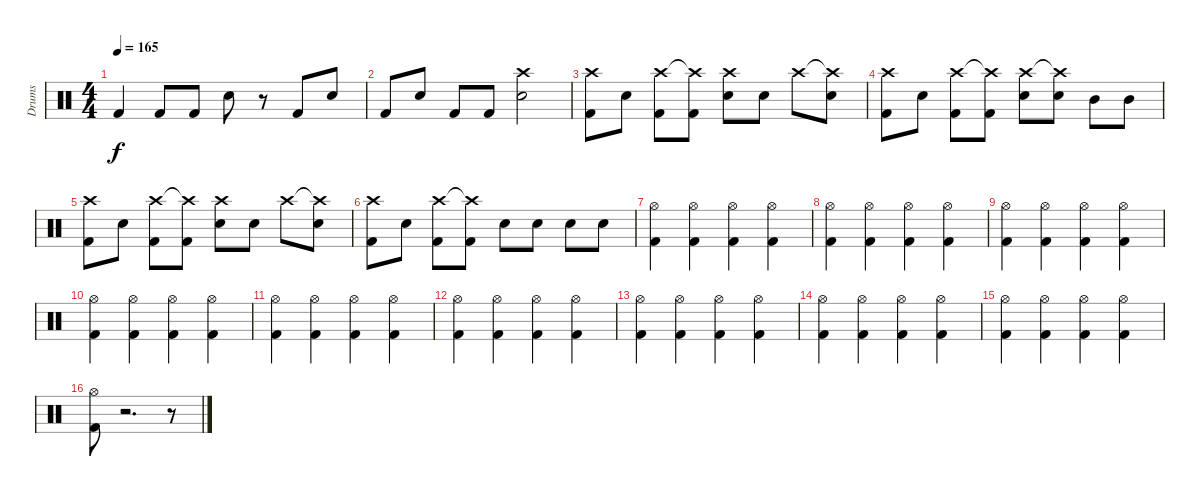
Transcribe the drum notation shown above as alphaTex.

\track ("Drums" "Drums") {instrument percussion}
\staff {score}
\articulation defaults
\ts (4 4)
\tempo 165
\clef neutral
\ks c "Kick (hit) 2".4{dy f} "Kick (hit) 2".8 "Kick (hit) 2".8 "Snare (hit) 2".8
r.8 "Kick (hit) 2".8 "Snare (hit) 2".8 |
"Kick (hit) 2".8 "Snare (hit) 2".8 "Kick (hit) 2".8 "Kick (hit) 2".8 ("Crash high (hit)" "Snare (hit) 2").2 |
("Crash high (hit)" "Kick (hit) 2").8 "Snare (hit) 2".8 ("Crash high (hit)" "Kick (hit) 2").8 ("Crash high (hit)"{t} "Kick (hit) 2").8 ("Crash high (hit)" "Snare (hit) 2").8 "Snare (hit) 2".8 "Crash high (hit)".8 ("Crash high (hit)"{t} "Snare (hit) 2").8 |
("Crash high (hit)" "Kick (hit) 2").8 "Snare (hit) 2".8 ("Crash high (hit)" "Kick (hit) 2").8 ("Crash high (hit)"{t} "Kick (hit) 2").8 ("Crash high (hit)" "Snare (hit) 2").8 ("Crash high (hit)"{t} "Snare (hit) 2").8 "Mid Tom (hit)".8 "Mid Tom (hit)".8 |
("Crash high (hit)" "Kick (hit) 2").8 "Snare (hit) 2".8 ("Crash high (hit)" "Kick (hit) 2").8 ("Crash high (hit)"{t} "Kick (hit) 2").8 ("Crash high (hit)" "Snare (hit) 2").8 "Snare (hit) 2".8 "Crash high (hit)".8 ("Crash high (hit)"{t} "Snare (hit) 2").8 |
("Crash high (hit)" "Kick (hit) 2").8 "Snare (hit) 2".8 ("Crash high (hit)" "Kick (hit) 2").8 ("Crash high (hit)"{t} "Kick (hit) 2").8 "Snare (hit) 2".8 "Snare (hit) 2".8 "Snare (hit) 2".8 "Snare (hit) 2".8 |
("Hi-Hat (open)" "Kick (hit) 2").4 ("Hi-Hat (open)" "Kick (hit) 2").4 ("Hi-Hat (open)" "Kick (hit) 2").4 ("Hi-Hat (open)" "Kick (hit) 2").4 |
("Hi-Hat (open)" "Kick (hit) 2").4 ("Hi-Hat (open)" "Kick (hit) 2").4 ("Hi-Hat (open)" "Kick (hit) 2").4 ("Hi-Hat (open)" "Kick (hit) 2").4 |
("Hi-Hat (open)" "Kick (hit) 2").4 ("Hi-Hat (open)" "Kick (hit) 2").4 ("Hi-Hat (open)" "Kick (hit) 2").4 ("Hi-Hat (open)" "Kick (hit) 2").4 |
("Hi-Hat (open)" "Kick (hit) 2").4 ("Hi-Hat (open)" "Kick (hit) 2").4 ("Hi-Hat (open)" "Kick (hit) 2").4 ("Hi-Hat (open)" "Kick (hit) 2").4 |
("Hi-Hat (open)" "Kick (hit) 2").4 ("Hi-Hat (open)" "Kick (hit) 2").4 ("Hi-Hat (open)" "Kick (hit) 2").4 ("Hi-Hat (open)" "Kick (hit) 2").4 |
("Hi-Hat (open)" "Kick (hit) 2").4 ("Hi-Hat (open)" "Kick (hit) 2").4 ("Hi-Hat (open)" "Kick (hit) 2").4 ("Hi-Hat (open)" "Kick (hit) 2").4 |
("Hi-Hat (open)" "Kick (hit) 2").4 ("Hi-Hat (open)" "Kick (hit) 2").4 ("Hi-Hat (open)" "Kick (hit) 2").4 ("Hi-Hat (open)" "Kick (hit) 2").4 |
("Hi-Hat (open)" "Kick (hit) 2").4 ("Hi-Hat (open)" "Kick (hit) 2").4 ("Hi-Hat (open)" "Kick (hit) 2").4 ("Hi-Hat (open)" "Kick (hit) 2").4 |
("Hi-Hat (open)" "Kick (hit) 2").4 ("Hi-Hat (open)" "Kick (hit) 2").4 ("Hi-Hat (open)" "Kick (hit) 2").4 ("Hi-Hat (open)" "Kick (hit) 2").4 |
("Hi-Hat (open)" "Kick (hit) 2").8 r.2{d} r.8
